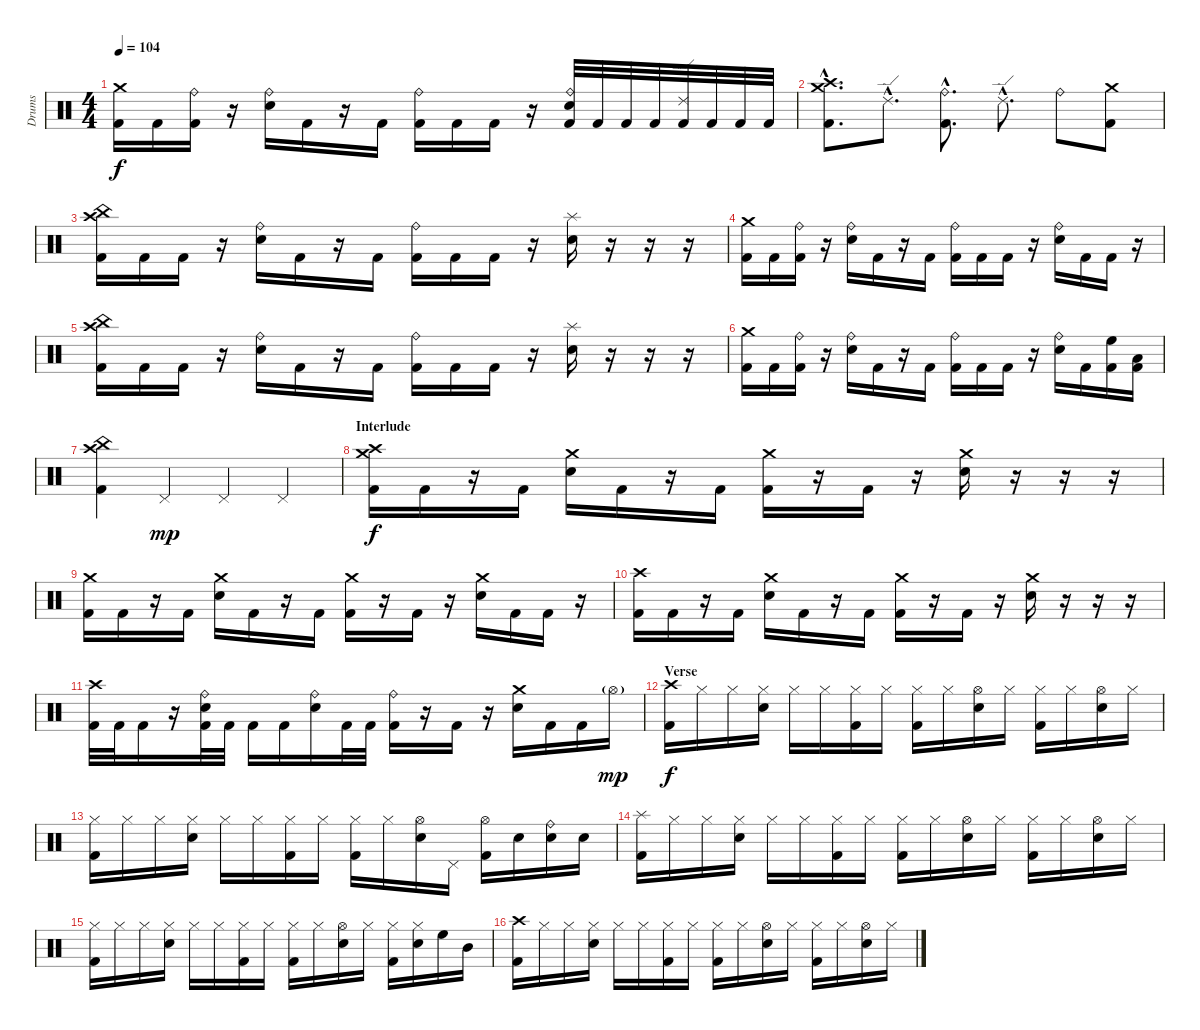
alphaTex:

\track ("Drums" "Drums") {instrument percussion}
\staff {score}
\articulation defaults
\ts (4 4)
\tempo 104
\clef neutral
\ks c
("Crash medium (hit)" "Kick (hit) 2").16{dy f} "Kick (hit) 2".16 ("Ride (bell)" "Kick (hit) 2").16 r.16 ("Ride (bell)" "Electric Snare (hit)").16 "Kick (hit) 2".16 r.16 "Kick (hit) 2".16 ("Ride (bell)" "Kick (hit) 2").16 "Kick (hit) 2".16 "Kick (hit) 2".16 r.16 ("Ride (bell)" "Electric Snare (hit)" "Kick (hit) 2").32 "Kick (hit) 2".32 "Kick (hit) 2".32 "Kick (hit) 2".32 ("Ride (edge) 2" "Kick (hit) 2").32 "Kick (hit) 2".32 "Kick (hit) 2".32 "Kick (hit) 2".32 |
("Crash high (hit)"{hac} "Crash medium (hit)"{hac} "Kick (hit) 2"{hac}).8{d} "Ride (edge) 2"{hac}.8{d} ("Ride (bell)"{hac} "Kick (hit) 2"{hac}).8{d} "Ride (edge) 2"{hac}.8{d} "Ride (bell)".8 ("Crash medium (hit)" "Kick (hit) 2").8 |
("China (hit)" "Crash high (hit)" "Kick (hit) 2").16 "Kick (hit) 2".16 "Kick (hit) 2".16 r.16 ("Ride (bell)" "Electric Snare (hit)").16 "Kick (hit) 2".16 r.16 "Kick (hit) 2".16 ("Ride (bell)" "Kick (hit) 2").16 "Kick (hit) 2".16 "Kick (hit) 2".16 r.16 ("Splash (hit)" "Electric Snare (hit)").16 r.16 r.16 r.16 |
("Crash medium (hit)" "Kick (hit) 2").16 "Kick (hit) 2".16 ("Ride (bell)" "Kick (hit) 2").16 r.16 ("Ride (bell)" "Electric Snare (hit)").16 "Kick (hit) 2".16 r.16 "Kick (hit) 2".16 ("Ride (bell)" "Kick (hit) 2").16 "Kick (hit) 2".16 "Kick (hit) 2".16 r.16 ("Ride (bell)" "Electric Snare (hit)").16 "Kick (hit) 2".16 "Kick (hit) 2".16 r.16 |
("China (hit)" "Crash high (hit)" "Kick (hit) 2").16 "Kick (hit) 2".16 "Kick (hit) 2".16 r.16 ("Ride (bell)" "Electric Snare (hit)").16 "Kick (hit) 2".16 r.16 "Kick (hit) 2".16 ("Ride (bell)" "Kick (hit) 2").16 "Kick (hit) 2".16 "Kick (hit) 2".16 r.16 ("Splash (hit)" "Electric Snare (hit)").16 r.16 r.16 r.16 |
("Crash medium (hit)" "Kick (hit) 2").16 "Kick (hit) 2".16 ("Ride (bell)" "Kick (hit) 2").16 r.16 ("Ride (bell)" "Electric Snare (hit)").16 "Kick (hit) 2".16 r.16 "Kick (hit) 2".16 ("Ride (bell)" "Kick (hit) 2").16 "Kick (hit) 2".16 "Kick (hit) 2".16 r.16 ("Ride (bell)" "Electric Snare (hit)").16 "Kick (hit) 2".16 ("High Floor Tom (hit)" "Kick (hit) 2").16 ("Low Floor Tom (hit)" "Kick (hit) 2").16 |
("China (hit)" "Crash high (hit)" "Kick (hit) 2").4 "Pedal Hi-Hat (hit)".4{dy mp} "Pedal Hi-Hat (hit)".4 "Pedal Hi-Hat (hit)".4 |
\section ("" "Interlude")
("Crash medium (hit)" "Crash high (hit)" "Kick (hit) 2").16{dy f} "Kick (hit) 2".16 r.16 "Kick (hit) 2".16 ("Crash medium (hit)" "Electric Snare (hit)").16 "Kick (hit) 2".16 r.16 "Kick (hit) 2".16 ("Crash medium (hit)" "Kick (hit) 2").16 r.16 "Kick (hit) 2".16 r.16 ("Crash medium (hit)" "Electric Snare (hit)").16 r.16 r.16 r.16 |
("Crash medium (hit)" "Kick (hit) 2").16 "Kick (hit) 2".16 r.16 "Kick (hit) 2".16 ("Crash medium (hit)" "Electric Snare (hit)").16 "Kick (hit) 2".16 r.16 "Kick (hit) 2".16 ("Crash medium (hit)" "Kick (hit) 2").16 r.16 "Kick (hit) 2".16 r.16 ("Crash medium (hit)" "Electric Snare (hit)").16 "Kick (hit) 2".16 "Kick (hit) 2".16 r.16 |
("Crash high (hit)" "Kick (hit) 2").16 "Kick (hit) 2".16 r.16 "Kick (hit) 2".16 ("Crash medium (hit)" "Electric Snare (hit)").16 "Kick (hit) 2".16 r.16 "Kick (hit) 2".16 ("Crash medium (hit)" "Kick (hit) 2").16 r.16 "Kick (hit) 2".16 r.16 ("Crash medium (hit)" "Electric Snare (hit)").16 r.16 r.16 r.16 |
("Crash high (hit)" "Kick (hit) 2").32 "Kick (hit) 2".32 "Kick (hit) 2".16 r.16 ("Ride (bell)" "Electric Snare (hit)" "Kick (hit) 2").32 "Kick (hit) 2".32 "Kick (hit) 2".16 "Kick (hit) 2".16 ("Ride (bell)" "Electric Snare (hit)").16 "Kick (hit) 2".32 "Kick (hit) 2".32 ("Ride (bell)" "Kick (hit) 2").16 r.16 "Kick (hit) 2".16 r.16 ("Crash medium (hit)" "Electric Snare (hit)").16 "Kick (hit) 2".16 "Kick (hit) 2".16 "Hi-Hat (open)"{g}.16{dy mp} |
\section ("" "Verse")
("Crash high (hit)" "Kick (hit) 2").16{dy f} "Hi-Hat (closed)".16 "Hi-Hat (closed)".16 ("Hi-Hat (closed)" "Electric Snare (hit)").16 "Hi-Hat (closed)".16 "Hi-Hat (closed)".16 ("Hi-Hat (closed)" "Kick (hit) 2").16 "Hi-Hat (closed)".16 ("Hi-Hat (closed)" "Kick (hit) 2").16 "Hi-Hat (closed)".16 ("Hi-Hat (open)" "Electric Snare (hit)").16 "Hi-Hat (closed)".16 ("Hi-Hat (closed)" "Kick (hit) 2").16 "Hi-Hat (closed)".16 ("Hi-Hat (open)" "Electric Snare (hit)").16 "Hi-Hat (closed)".16 |
("Hi-Hat (closed)" "Kick (hit) 2").16 "Hi-Hat (closed)".16 "Hi-Hat (closed)".16 ("Hi-Hat (closed)" "Electric Snare (hit)").16 "Hi-Hat (closed)".16 "Hi-Hat (closed)".16 ("Hi-Hat (closed)" "Kick (hit) 2").16 "Hi-Hat (closed)".16 ("Hi-Hat (closed)" "Kick (hit) 2").16 "Hi-Hat (closed)".16 ("Hi-Hat (open)" "Electric Snare (hit)").16 "Pedal Hi-Hat (hit)".16 ("Hi-Hat (open)" "Kick (hit) 2").16 "Electric Snare (hit)".16 ("Ride (bell)" "Electric Snare (hit)").16 "Electric Snare (hit)".16 |
("Splash (hit)" "Kick (hit) 2").16 "Hi-Hat (closed)".16 "Hi-Hat (closed)".16 ("Hi-Hat (closed)" "Electric Snare (hit)").16 "Hi-Hat (closed)".16 "Hi-Hat (closed)".16 ("Hi-Hat (closed)" "Kick (hit) 2").16 "Hi-Hat (closed)".16 ("Hi-Hat (closed)" "Kick (hit) 2").16 "Hi-Hat (closed)".16 ("Hi-Hat (open)" "Electric Snare (hit)").16 "Hi-Hat (closed)".16 ("Hi-Hat (closed)" "Kick (hit) 2").16 "Hi-Hat (closed)".16 ("Hi-Hat (open)" "Electric Snare (hit)").16 "Hi-Hat (closed)".16 |
("Hi-Hat (closed)" "Kick (hit) 2").16 "Hi-Hat (closed)".16 "Hi-Hat (closed)".16 ("Hi-Hat (closed)" "Electric Snare (hit)").16 "Hi-Hat (closed)".16 "Hi-Hat (closed)".16 ("Hi-Hat (closed)" "Kick (hit) 2").16 "Hi-Hat (closed)".16 ("Hi-Hat (closed)" "Kick (hit) 2").16 "Hi-Hat (closed)".16 ("Hi-Hat (open)" "Electric Snare (hit)").16 "Hi-Hat (closed)".16 ("Hi-Hat (closed)" "Kick (hit) 2").16 ("Hi-Hat (closed)" "Electric Snare (hit)").16 "High Floor Tom (hit)".16 "Mid Tom (hit)".16 |
("Crash high (hit)" "Kick (hit) 2").16 "Hi-Hat (closed)".16 "Hi-Hat (closed)".16 ("Hi-Hat (closed)" "Electric Snare (hit)").16 "Hi-Hat (closed)".16 "Hi-Hat (closed)".16 ("Hi-Hat (closed)" "Kick (hit) 2").16 "Hi-Hat (closed)".16 ("Hi-Hat (closed)" "Kick (hit) 2").16 "Hi-Hat (closed)".16 ("Hi-Hat (open)" "Electric Snare (hit)").16 "Hi-Hat (closed)".16 ("Hi-Hat (closed)" "Kick (hit) 2").16 "Hi-Hat (closed)".16 ("Hi-Hat (open)" "Electric Snare (hit)").16 "Hi-Hat (closed)".16
